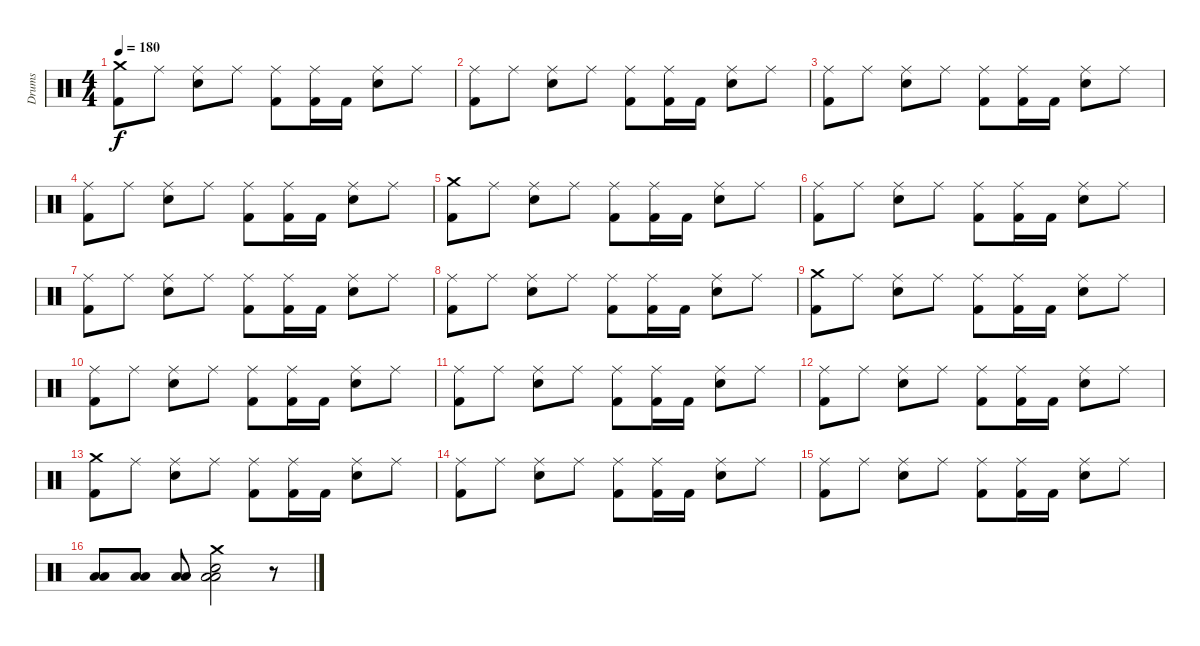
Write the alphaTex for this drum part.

\track ("Drums" "Drums") {instrument percussion}
\staff {score}
\articulation defaults
\ts (4 4)
\tempo 180
\clef neutral
\ks c
("Crash medium (hit)" "Kick (hit) 2").8{dy f} "Ride (middle)".8 ("Ride (middle)" "Electric Snare (hit)").8 "Ride (middle)".8 ("Ride (middle)" "Kick (hit) 2").8 ("Ride (middle)" "Kick (hit) 2").16 "Kick (hit) 2".16 ("Ride (middle)" "Electric Snare (hit)").8 "Ride (middle)".8 |
("Ride (middle)" "Kick (hit) 2").8 "Ride (middle)".8 ("Ride (middle)" "Electric Snare (hit)").8 "Ride (middle)".8 ("Ride (middle)" "Kick (hit) 2").8 ("Ride (middle)" "Kick (hit) 2").16 "Kick (hit) 2".16 ("Ride (middle)" "Electric Snare (hit)").8 "Ride (middle)".8 |
("Ride (middle)" "Kick (hit) 2").8 "Ride (middle)".8 ("Ride (middle)" "Electric Snare (hit)").8 "Ride (middle)".8 ("Ride (middle)" "Kick (hit) 2").8 ("Ride (middle)" "Kick (hit) 2").16 "Kick (hit) 2".16 ("Ride (middle)" "Electric Snare (hit)").8 "Ride (middle)".8 |
("Ride (middle)" "Kick (hit) 2").8 "Ride (middle)".8 ("Ride (middle)" "Electric Snare (hit)").8 "Ride (middle)".8 ("Ride (middle)" "Kick (hit) 2").8 ("Ride (middle)" "Kick (hit) 2").16 "Kick (hit) 2".16 ("Ride (middle)" "Electric Snare (hit)").8 "Ride (middle)".8 |
("Crash medium (hit)" "Kick (hit) 2").8 "Ride (middle)".8 ("Ride (middle)" "Electric Snare (hit)").8 "Ride (middle)".8 ("Ride (middle)" "Kick (hit) 2").8 ("Ride (middle)" "Kick (hit) 2").16 "Kick (hit) 2".16 ("Ride (middle)" "Electric Snare (hit)").8 "Ride (middle)".8 |
("Ride (middle)" "Kick (hit) 2").8 "Ride (middle)".8 ("Ride (middle)" "Electric Snare (hit)").8 "Ride (middle)".8 ("Ride (middle)" "Kick (hit) 2").8 ("Ride (middle)" "Kick (hit) 2").16 "Kick (hit) 2".16 ("Ride (middle)" "Electric Snare (hit)").8 "Ride (middle)".8 |
("Ride (middle)" "Kick (hit) 2").8 "Ride (middle)".8 ("Ride (middle)" "Electric Snare (hit)").8 "Ride (middle)".8 ("Ride (middle)" "Kick (hit) 2").8 ("Ride (middle)" "Kick (hit) 2").16 "Kick (hit) 2".16 ("Ride (middle)" "Electric Snare (hit)").8 "Ride (middle)".8 |
("Ride (middle)" "Kick (hit) 2").8 "Ride (middle)".8 ("Ride (middle)" "Electric Snare (hit)").8 "Ride (middle)".8 ("Ride (middle)" "Kick (hit) 2").8 ("Ride (middle)" "Kick (hit) 2").16 "Kick (hit) 2".16 ("Ride (middle)" "Electric Snare (hit)").8 "Ride (middle)".8 |
("Crash medium (hit)" "Kick (hit) 2").8 "Ride (middle)".8 ("Ride (middle)" "Electric Snare (hit)").8 "Ride (middle)".8 ("Ride (middle)" "Kick (hit) 2").8 ("Ride (middle)" "Kick (hit) 2").16 "Kick (hit) 2".16 ("Ride (middle)" "Electric Snare (hit)").8 "Ride (middle)".8 |
("Ride (middle)" "Kick (hit) 2").8 "Ride (middle)".8 ("Ride (middle)" "Electric Snare (hit)").8 "Ride (middle)".8 ("Ride (middle)" "Kick (hit) 2").8 ("Ride (middle)" "Kick (hit) 2").16 "Kick (hit) 2".16 ("Ride (middle)" "Electric Snare (hit)").8 "Ride (middle)".8 |
("Ride (middle)" "Kick (hit) 2").8 "Ride (middle)".8 ("Ride (middle)" "Electric Snare (hit)").8 "Ride (middle)".8 ("Ride (middle)" "Kick (hit) 2").8 ("Ride (middle)" "Kick (hit) 2").16 "Kick (hit) 2".16 ("Ride (middle)" "Electric Snare (hit)").8 "Ride (middle)".8 |
("Ride (middle)" "Kick (hit) 2").8 "Ride (middle)".8 ("Ride (middle)" "Electric Snare (hit)").8 "Ride (middle)".8 ("Ride (middle)" "Kick (hit) 2").8 ("Ride (middle)" "Kick (hit) 2").16 "Kick (hit) 2".16 ("Ride (middle)" "Electric Snare (hit)").8 "Ride (middle)".8 |
("Crash medium (hit)" "Kick (hit) 2").8 "Ride (middle)".8 ("Ride (middle)" "Electric Snare (hit)").8 "Ride (middle)".8 ("Ride (middle)" "Kick (hit) 2").8 ("Ride (middle)" "Kick (hit) 2").16 "Kick (hit) 2".16 ("Ride (middle)" "Electric Snare (hit)").8 "Ride (middle)".8 |
("Ride (middle)" "Kick (hit) 2").8 "Ride (middle)".8 ("Ride (middle)" "Electric Snare (hit)").8 "Ride (middle)".8 ("Ride (middle)" "Kick (hit) 2").8 ("Ride (middle)" "Kick (hit) 2").16 "Kick (hit) 2".16 ("Ride (middle)" "Electric Snare (hit)").8 "Ride (middle)".8 |
("Ride (middle)" "Kick (hit) 2").8 "Ride (middle)".8 ("Ride (middle)" "Electric Snare (hit)").8 "Ride (middle)".8 ("Ride (middle)" "Kick (hit) 2").8 ("Ride (middle)" "Kick (hit) 2").16 "Kick (hit) 2".16 ("Ride (middle)" "Electric Snare (hit)").8 "Ride (middle)".8 |
("Low Tom (hit)" "Low Tom (hit)").8 ("Low Tom (hit)" "Low Tom (hit)").8 ("Low Tom (hit)" "Low Tom (hit)").8 ("Crash medium (hit)" "Electric Snare (hit)" "Low Tom (hit)" "Low Tom (hit)").2 r.8
